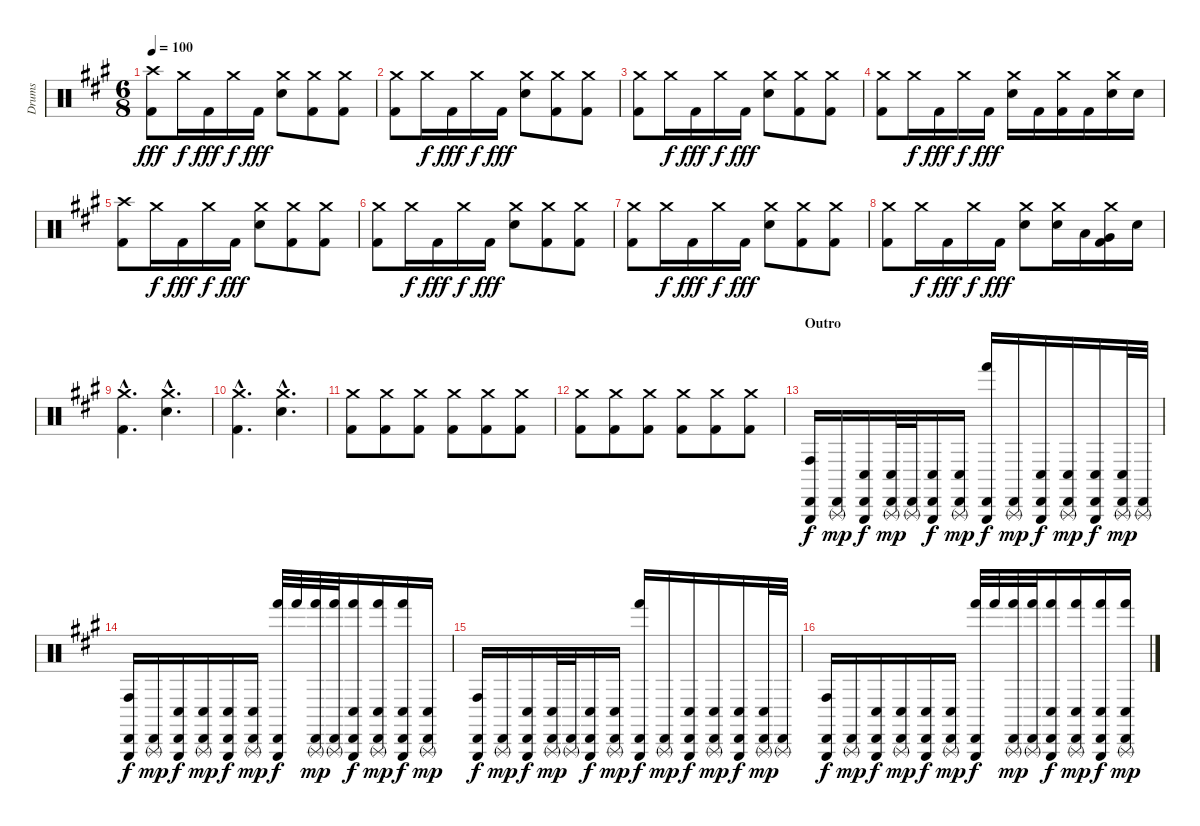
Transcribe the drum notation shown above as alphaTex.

\track ("Drums" "Drums") {instrument percussion}
\staff {score}
\articulation defaults
\ts (6 8)
\tempo 100
\clef neutral
\ks a
("Crash high (hit)" "Kick (hit) 2").8{dy fff} "Crash medium (hit)".16{dy f} "Kick (hit) 2".16{dy fff} "Crash medium (hit)".16{dy f} "Kick (hit) 2".16{dy fff} ("Crash medium (hit)" "Electric Snare (hit)").8 ("Crash medium (hit)" "Kick (hit) 2").8 ("Crash medium (hit)" "Kick (hit) 2").8 |
("Crash medium (hit)" "Kick (hit) 2").8 "Crash medium (hit)".16{dy f} "Kick (hit) 2".16{dy fff} "Crash medium (hit)".16{dy f} "Kick (hit) 2".16{dy fff} ("Crash medium (hit)" "Electric Snare (hit)").8 ("Crash medium (hit)" "Kick (hit) 2").8 ("Crash medium (hit)" "Kick (hit) 2").8 |
("Crash medium (hit)" "Kick (hit) 2").8 "Crash medium (hit)".16{dy f} "Kick (hit) 2".16{dy fff} "Crash medium (hit)".16{dy f} "Kick (hit) 2".16{dy fff} ("Crash medium (hit)" "Electric Snare (hit)").8 ("Crash medium (hit)" "Kick (hit) 2").8 ("Crash medium (hit)" "Kick (hit) 2").8 |
("Crash medium (hit)" "Kick (hit) 2").8 "Crash medium (hit)".16{dy f} "Kick (hit) 2".16{dy fff} "Crash medium (hit)".16{dy f} "Kick (hit) 2".16{dy fff} ("Crash medium (hit)" "Electric Snare (hit)").16 "Kick (hit) 2".16 ("Crash medium (hit)" "Kick (hit) 2").16 "Kick (hit) 2".16 ("Crash medium (hit)" "Electric Snare (hit)").16 "Electric Snare (hit)".16 |
("Crash high (hit)" "Kick (hit) 2").8 "Crash medium (hit)".16{dy f} "Kick (hit) 2".16{dy fff} "Crash medium (hit)".16{dy f} "Kick (hit) 2".16{dy fff} ("Crash medium (hit)" "Electric Snare (hit)").8 ("Crash medium (hit)" "Kick (hit) 2").8 ("Crash medium (hit)" "Kick (hit) 2").8 |
("Crash medium (hit)" "Kick (hit) 2").8 "Crash medium (hit)".16{dy f} "Kick (hit) 2".16{dy fff} "Crash medium (hit)".16{dy f} "Kick (hit) 2".16{dy fff} ("Crash medium (hit)" "Electric Snare (hit)").8 ("Crash medium (hit)" "Kick (hit) 2").8 ("Crash medium (hit)" "Kick (hit) 2").8 |
("Crash medium (hit)" "Kick (hit) 2").8 "Crash medium (hit)".16{dy f} "Kick (hit) 2".16{dy fff} "Crash medium (hit)".16{dy f} "Kick (hit) 2".16{dy fff} ("Crash medium (hit)" "Electric Snare (hit)").8 ("Crash medium (hit)" "Kick (hit) 2").8 ("Crash medium (hit)" "Kick (hit) 2").8 |
("Crash medium (hit)" "Kick (hit) 2").8 "Crash medium (hit)".16{dy f} "Kick (hit) 2".16{dy fff} "Crash medium (hit)".16{dy f} "Kick (hit) 2".16{dy fff} ("Crash medium (hit)" "Electric Snare (hit)").8 ("Crash medium (hit)" "Electric Snare (hit)").16 "Low Tom (hit)".16 ("Crash medium (hit)" "Very Low Tom (hit)" "Kick (hit) 2").16 "Electric Snare (hit)".16 |
("Crash medium (hit)"{hac} "Kick (hit) 2"{hac}).4{d} ("Crash medium (hit)"{hac} "Electric Snare (hit)"{hac}).4{d} |
("Crash medium (hit)"{hac} "Kick (hit) 2"{hac}).4{d} ("Crash medium (hit)"{hac} "Electric Snare (hit)"{hac}).4{d} |
("Crash medium (hit)" "Kick (hit) 2").8 ("Crash medium (hit)" "Kick (hit) 2").8 ("Crash medium (hit)" "Kick (hit) 2").8 ("Crash medium (hit)" "Kick (hit) 2").8 ("Crash medium (hit)" "Kick (hit) 2").8 ("Crash medium (hit)" "Kick (hit) 2").8 |
("Crash medium (hit)" "Kick (hit) 2").8 ("Crash medium (hit)" "Kick (hit) 2").8 ("Crash medium (hit)" "Kick (hit) 2").8 ("Crash medium (hit)" "Kick (hit) 2").8 ("Crash medium (hit)" "Kick (hit) 2").8 ("Crash medium (hit)" "Kick (hit) 2").8 |
\section ("" "Outro")
("Cabasa (hit)" "Triangle (hit)" "Conga high (hit)").16{dy f} ("Cabasa (hit)" "Triangle (rnute)").16{dy mp} ("Cabasa (hit)" "Triangle (hit)" "Conga low (hit)").16{dy f} ("Cabasa (hit)" "Triangle (rnute)" "Conga low (hit)").32{dy mp} ("Cabasa (hit)" "Triangle (rnute)").32 ("Cabasa (hit)" "Triangle (hit)" "Conga low (hit)").16{dy f} ("Cabasa (hit)" "Triangle (rnute)" "Conga low (hit)").16{dy mp} ("Cabasa (hit)" "Triangle (hit)" "Hand (hit)").16{dy f} ("Cabasa (hit)" "Triangle (rnute)").16{dy mp} ("Cabasa (hit)" "Triangle (hit)" "Conga low (hit)").16{dy f} ("Cabasa (hit)" "Triangle (rnute)" "Conga low (hit)").16{dy mp} ("Cabasa (hit)" "Triangle (hit)" "Conga low (hit)").16{dy f} ("Cabasa (hit)" "Triangle (rnute)" "Conga low (hit)").32{dy mp} ("Cabasa (hit)" "Triangle (rnute)").32 |
("Cabasa (hit)" "Triangle (hit)" "Conga high (hit)").16{dy f} ("Cabasa (hit)" "Triangle (rnute)").16{dy mp} ("Cabasa (hit)" "Triangle (hit)" "Conga low (hit)").16{dy f} ("Cabasa (hit)" "Triangle (rnute)" "Conga low (hit)").16{dy mp} ("Cabasa (hit)" "Triangle (hit)" "Conga low (hit)").16{dy f} ("Cabasa (hit)" "Triangle (rnute)" "Conga low (hit)").16{dy mp} ("Cabasa (hit)" "Triangle (hit)" "Hand (hit)").32{dy f} "Hand (hit)".32 ("Cabasa (hit)" "Triangle (rnute)" "Hand (hit)").32{dy mp} ("Cabasa (hit)" "Triangle (rnute)" "Hand (hit)").32 ("Cabasa (hit)" "Triangle (hit)" "Hand (hit)" "Conga low (hit)").16{dy f} ("Cabasa (hit)" "Triangle (rnute)" "Hand (hit)" "Conga low (hit)").16{dy mp} ("Cabasa (hit)" "Triangle (hit)" "Hand (hit)" "Conga low (hit)").16{dy f} ("Cabasa (hit)" "Triangle (rnute)" "Conga low (hit)").16{dy mp} |
("Cabasa (hit)" "Triangle (hit)" "Conga high (hit)").16{dy f} ("Cabasa (hit)" "Triangle (rnute)").16{dy mp} ("Cabasa (hit)" "Triangle (hit)" "Conga low (hit)").16{dy f} ("Cabasa (hit)" "Triangle (rnute)" "Conga low (hit)").32{dy mp} ("Cabasa (hit)" "Triangle (rnute)").32 ("Cabasa (hit)" "Triangle (hit)" "Conga low (hit)").16{dy f} ("Cabasa (hit)" "Triangle (rnute)" "Conga low (hit)").16{dy mp} ("Cabasa (hit)" "Triangle (hit)" "Hand (hit)").16{dy f} ("Cabasa (hit)" "Triangle (rnute)").16{dy mp} ("Cabasa (hit)" "Triangle (hit)" "Conga low (hit)").16{dy f} ("Cabasa (hit)" "Triangle (rnute)" "Conga low (hit)").16{dy mp} ("Cabasa (hit)" "Triangle (hit)" "Conga low (hit)").16{dy f} ("Cabasa (hit)" "Triangle (rnute)" "Conga low (hit)").32{dy mp} ("Cabasa (hit)" "Triangle (rnute)").32 |
("Cabasa (hit)" "Triangle (hit)" "Conga high (hit)").16{dy f} ("Cabasa (hit)" "Triangle (rnute)").16{dy mp} ("Cabasa (hit)" "Triangle (hit)" "Conga low (hit)").16{dy f} ("Cabasa (hit)" "Triangle (rnute)" "Conga low (hit)").16{dy mp} ("Cabasa (hit)" "Triangle (hit)" "Conga low (hit)").16{dy f} ("Cabasa (hit)" "Triangle (rnute)" "Conga low (hit)").16{dy mp} ("Cabasa (hit)" "Triangle (hit)" "Hand (hit)").32{dy f} "Hand (hit)".32 ("Cabasa (hit)" "Triangle (rnute)" "Hand (hit)").32{dy mp} ("Cabasa (hit)" "Triangle (rnute)" "Hand (hit)").32 ("Cabasa (hit)" "Triangle (hit)" "Hand (hit)" "Conga low (hit)").16{dy f} ("Cabasa (hit)" "Triangle (rnute)" "Hand (hit)" "Conga low (hit)").16{dy mp} ("Cabasa (hit)" "Triangle (hit)" "Hand (hit)" "Conga low (hit)").16{dy f} ("Cabasa (hit)" "Triangle (rnute)" "Hand (hit)" "Conga low (hit)").16{dy mp}
